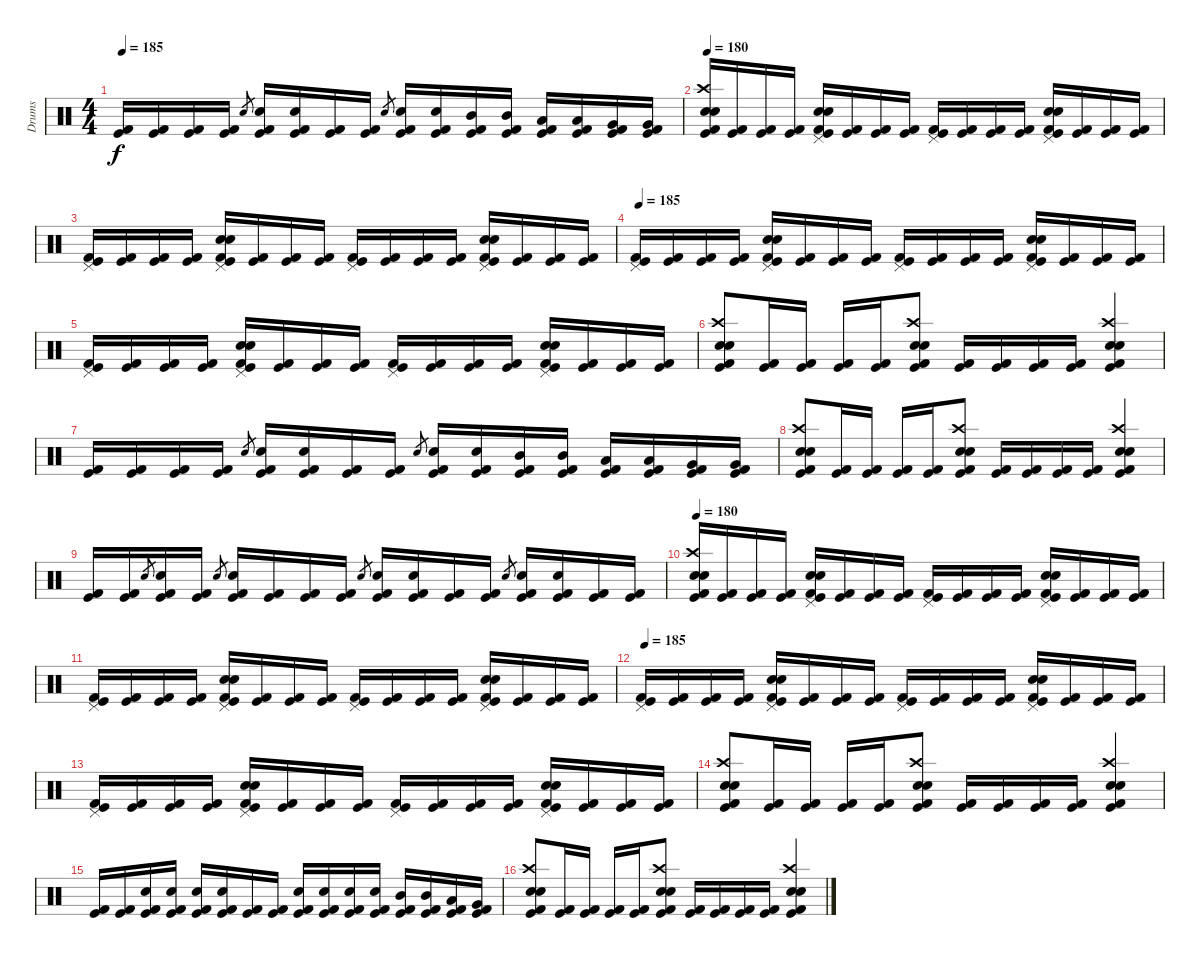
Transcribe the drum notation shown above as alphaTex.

\track ("Drums" "Drums") {instrument percussion}
\staff {score}
\articulation defaults
\ts (4 4)
\tempo 185
\clef neutral
\ks c
("Kick (hit) 2" "Kick (hit)").16{dy f} ("Kick (hit) 2" "Kick (hit)").16 ("Kick (hit) 2" "Kick (hit)").16 ("Kick (hit) 2" "Kick (hit)").16 "Electric Snare (hit)".8{gr} ("Electric Snare (hit)" "Kick (hit) 2" "Kick (hit)").16 ("Electric Snare (hit)" "Kick (hit) 2" "Kick (hit)").16 ("Kick (hit) 2" "Kick (hit)").16 ("Kick (hit) 2" "Kick (hit)").16 "Electric Snare (hit)".8{gr} ("Electric Snare (hit)" "Kick (hit) 2" "Kick (hit)").16 ("Electric Snare (hit)" "Kick (hit) 2" "Kick (hit)").16 ("Mid Tom (hit)" "Kick (hit) 2" "Kick (hit)").16 ("Mid Tom (hit)" "Kick (hit) 2" "Kick (hit)").16 ("Low Tom (hit)" "Kick (hit) 2" "Kick (hit)").16 ("Low Tom (hit)" "Kick (hit) 2" "Kick (hit)").16 ("Very Low Tom (hit)" "Kick (hit) 2" "Kick (hit)").16 ("Very Low Tom (hit)" "Kick (hit) 2" "Kick (hit)").16 |
\tempo 180
("Crash high (hit)" "Electric Snare (hit)" "Snare (hit) 2" "Kick (hit) 2" "Kick (hit)").16 ("Kick (hit) 2" "Kick (hit)").16 ("Kick (hit) 2" "Kick (hit)").16 ("Kick (hit) 2" "Kick (hit)").16 ("Pedal Hi-Hat (hit)" "Electric Snare (hit)" "Snare (hit) 2" "Kick (hit) 2" "Kick (hit)").16 ("Kick (hit) 2" "Kick (hit)").16 ("Kick (hit) 2" "Kick (hit)").16 ("Kick (hit) 2" "Kick (hit)").16 ("Pedal Hi-Hat (hit)" "Kick (hit) 2" "Kick (hit)").16 ("Kick (hit) 2" "Kick (hit)").16 ("Kick (hit) 2" "Kick (hit)").16 ("Kick (hit) 2" "Kick (hit)").16 ("Pedal Hi-Hat (hit)" "Electric Snare (hit)" "Snare (hit) 2" "Kick (hit) 2" "Kick (hit)").16 ("Kick (hit) 2" "Kick (hit)").16 ("Kick (hit) 2" "Kick (hit)").16 ("Kick (hit) 2" "Kick (hit)").16 |
("Pedal Hi-Hat (hit)" "Kick (hit) 2" "Kick (hit)").16 ("Kick (hit) 2" "Kick (hit)").16 ("Kick (hit) 2" "Kick (hit)").16 ("Kick (hit) 2" "Kick (hit)").16 ("Pedal Hi-Hat (hit)" "Electric Snare (hit)" "Snare (hit) 2" "Kick (hit) 2" "Kick (hit)").16 ("Kick (hit) 2" "Kick (hit)").16 ("Kick (hit) 2" "Kick (hit)").16 ("Kick (hit) 2" "Kick (hit)").16 ("Pedal Hi-Hat (hit)" "Kick (hit) 2" "Kick (hit)").16 ("Kick (hit) 2" "Kick (hit)").16 ("Kick (hit) 2" "Kick (hit)").16 ("Kick (hit) 2" "Kick (hit)").16 ("Pedal Hi-Hat (hit)" "Electric Snare (hit)" "Snare (hit) 2" "Kick (hit) 2" "Kick (hit)").16 ("Kick (hit) 2" "Kick (hit)").16 ("Kick (hit) 2" "Kick (hit)").16 ("Kick (hit) 2" "Kick (hit)").16 |
\tempo 185
("Pedal Hi-Hat (hit)" "Kick (hit) 2" "Kick (hit)").16 ("Kick (hit) 2" "Kick (hit)").16 ("Kick (hit) 2" "Kick (hit)").16 ("Kick (hit) 2" "Kick (hit)").16 ("Pedal Hi-Hat (hit)" "Electric Snare (hit)" "Snare (hit) 2" "Kick (hit) 2" "Kick (hit)").16 ("Kick (hit) 2" "Kick (hit)").16 ("Kick (hit) 2" "Kick (hit)").16 ("Kick (hit) 2" "Kick (hit)").16 ("Pedal Hi-Hat (hit)" "Kick (hit) 2" "Kick (hit)").16 ("Kick (hit) 2" "Kick (hit)").16 ("Kick (hit) 2" "Kick (hit)").16 ("Kick (hit) 2" "Kick (hit)").16 ("Pedal Hi-Hat (hit)" "Electric Snare (hit)" "Snare (hit) 2" "Kick (hit) 2" "Kick (hit)").16 ("Kick (hit) 2" "Kick (hit)").16 ("Kick (hit) 2" "Kick (hit)").16 ("Kick (hit) 2" "Kick (hit)").16 |
("Pedal Hi-Hat (hit)" "Kick (hit) 2" "Kick (hit)").16 ("Kick (hit) 2" "Kick (hit)").16 ("Kick (hit) 2" "Kick (hit)").16 ("Kick (hit) 2" "Kick (hit)").16 ("Pedal Hi-Hat (hit)" "Electric Snare (hit)" "Snare (hit) 2" "Kick (hit) 2" "Kick (hit)").16 ("Kick (hit) 2" "Kick (hit)").16 ("Kick (hit) 2" "Kick (hit)").16 ("Kick (hit) 2" "Kick (hit)").16 ("Pedal Hi-Hat (hit)" "Kick (hit) 2" "Kick (hit)").16 ("Kick (hit) 2" "Kick (hit)").16 ("Kick (hit) 2" "Kick (hit)").16 ("Kick (hit) 2" "Kick (hit)").16 ("Pedal Hi-Hat (hit)" "Electric Snare (hit)" "Snare (hit) 2" "Kick (hit) 2" "Kick (hit)").16 ("Kick (hit) 2" "Kick (hit)").16 ("Kick (hit) 2" "Kick (hit)").16 ("Kick (hit) 2" "Kick (hit)").16 |
("Crash high (hit)" "Electric Snare (hit)" "Snare (hit) 2" "Kick (hit) 2" "Kick (hit)").8 ("Kick (hit) 2" "Kick (hit)").16 ("Kick (hit) 2" "Kick (hit)").16 ("Kick (hit) 2" "Kick (hit)").16 ("Kick (hit) 2" "Kick (hit)").16 ("Crash high (hit)" "Electric Snare (hit)" "Snare (hit) 2" "Kick (hit) 2" "Kick (hit)").8 ("Kick (hit) 2" "Kick (hit)").16 ("Kick (hit) 2" "Kick (hit)").16 ("Kick (hit) 2" "Kick (hit)").16 ("Kick (hit) 2" "Kick (hit)").16 ("Crash high (hit)" "Electric Snare (hit)" "Snare (hit) 2" "Kick (hit) 2" "Kick (hit)").4 |
("Kick (hit) 2" "Kick (hit)").16 ("Kick (hit) 2" "Kick (hit)").16 ("Kick (hit) 2" "Kick (hit)").16 ("Kick (hit) 2" "Kick (hit)").16 "Electric Snare (hit)".8{gr} ("Electric Snare (hit)" "Kick (hit) 2" "Kick (hit)").16 ("Electric Snare (hit)" "Kick (hit) 2" "Kick (hit)").16 ("Kick (hit) 2" "Kick (hit)").16 ("Kick (hit) 2" "Kick (hit)").16 "Electric Snare (hit)".8{gr} ("Electric Snare (hit)" "Kick (hit) 2" "Kick (hit)").16 ("Electric Snare (hit)" "Kick (hit) 2" "Kick (hit)").16 ("Mid Tom (hit)" "Kick (hit) 2" "Kick (hit)").16 ("Mid Tom (hit)" "Kick (hit) 2" "Kick (hit)").16 ("Low Tom (hit)" "Kick (hit) 2" "Kick (hit)").16 ("Low Tom (hit)" "Kick (hit) 2" "Kick (hit)").16 ("Very Low Tom (hit)" "Kick (hit) 2" "Kick (hit)").16 ("Very Low Tom (hit)" "Kick (hit) 2" "Kick (hit)").16 |
("Crash high (hit)" "Electric Snare (hit)" "Snare (hit) 2" "Kick (hit) 2" "Kick (hit)").8 ("Kick (hit) 2" "Kick (hit)").16 ("Kick (hit) 2" "Kick (hit)").16 ("Kick (hit) 2" "Kick (hit)").16 ("Kick (hit) 2" "Kick (hit)").16 ("Crash high (hit)" "Electric Snare (hit)" "Snare (hit) 2" "Kick (hit) 2" "Kick (hit)").8 ("Kick (hit) 2" "Kick (hit)").16 ("Kick (hit) 2" "Kick (hit)").16 ("Kick (hit) 2" "Kick (hit)").16 ("Kick (hit) 2" "Kick (hit)").16 ("Crash high (hit)" "Electric Snare (hit)" "Snare (hit) 2" "Kick (hit) 2" "Kick (hit)").4 |
("Kick (hit) 2" "Kick (hit)").16 ("Kick (hit) 2" "Kick (hit)").16 "Electric Snare (hit)".8{gr} ("Electric Snare (hit)" "Kick (hit) 2" "Kick (hit)").16 ("Kick (hit) 2" "Kick (hit)").16 "Electric Snare (hit)".8{gr} ("Electric Snare (hit)" "Kick (hit) 2" "Kick (hit)").16 ("Kick (hit) 2" "Kick (hit)").16 ("Kick (hit) 2" "Kick (hit)").16 ("Kick (hit) 2" "Kick (hit)").16 "Electric Snare (hit)".8{gr} ("Electric Snare (hit)" "Kick (hit) 2" "Kick (hit)").16 ("Electric Snare (hit)" "Kick (hit) 2" "Kick (hit)").16 ("Kick (hit) 2" "Kick (hit)").16 ("Kick (hit) 2" "Kick (hit)").16 "Electric Snare (hit)".8{gr} ("Electric Snare (hit)" "Kick (hit) 2" "Kick (hit)").16 ("Electric Snare (hit)" "Kick (hit) 2" "Kick (hit)").16 ("Kick (hit) 2" "Kick (hit)").16 ("Kick (hit) 2" "Kick (hit)").16 |
\tempo 180
("Crash high (hit)" "Electric Snare (hit)" "Snare (hit) 2" "Kick (hit) 2" "Kick (hit)").16 ("Kick (hit) 2" "Kick (hit)").16 ("Kick (hit) 2" "Kick (hit)").16 ("Kick (hit) 2" "Kick (hit)").16 ("Pedal Hi-Hat (hit)" "Electric Snare (hit)" "Snare (hit) 2" "Kick (hit) 2" "Kick (hit)").16 ("Kick (hit) 2" "Kick (hit)").16 ("Kick (hit) 2" "Kick (hit)").16 ("Kick (hit) 2" "Kick (hit)").16 ("Pedal Hi-Hat (hit)" "Kick (hit) 2" "Kick (hit)").16 ("Kick (hit) 2" "Kick (hit)").16 ("Kick (hit) 2" "Kick (hit)").16 ("Kick (hit) 2" "Kick (hit)").16 ("Pedal Hi-Hat (hit)" "Electric Snare (hit)" "Snare (hit) 2" "Kick (hit) 2" "Kick (hit)").16 ("Kick (hit) 2" "Kick (hit)").16 ("Kick (hit) 2" "Kick (hit)").16 ("Kick (hit) 2" "Kick (hit)").16 |
("Pedal Hi-Hat (hit)" "Kick (hit) 2" "Kick (hit)").16 ("Kick (hit) 2" "Kick (hit)").16 ("Kick (hit) 2" "Kick (hit)").16 ("Kick (hit) 2" "Kick (hit)").16 ("Pedal Hi-Hat (hit)" "Electric Snare (hit)" "Snare (hit) 2" "Kick (hit) 2" "Kick (hit)").16 ("Kick (hit) 2" "Kick (hit)").16 ("Kick (hit) 2" "Kick (hit)").16 ("Kick (hit) 2" "Kick (hit)").16 ("Pedal Hi-Hat (hit)" "Kick (hit) 2" "Kick (hit)").16 ("Kick (hit) 2" "Kick (hit)").16 ("Kick (hit) 2" "Kick (hit)").16 ("Kick (hit) 2" "Kick (hit)").16 ("Pedal Hi-Hat (hit)" "Electric Snare (hit)" "Snare (hit) 2" "Kick (hit) 2" "Kick (hit)").16 ("Kick (hit) 2" "Kick (hit)").16 ("Kick (hit) 2" "Kick (hit)").16 ("Kick (hit) 2" "Kick (hit)").16 |
\tempo 185
("Pedal Hi-Hat (hit)" "Kick (hit) 2" "Kick (hit)").16 ("Kick (hit) 2" "Kick (hit)").16 ("Kick (hit) 2" "Kick (hit)").16 ("Kick (hit) 2" "Kick (hit)").16 ("Pedal Hi-Hat (hit)" "Electric Snare (hit)" "Snare (hit) 2" "Kick (hit) 2" "Kick (hit)").16 ("Kick (hit) 2" "Kick (hit)").16 ("Kick (hit) 2" "Kick (hit)").16 ("Kick (hit) 2" "Kick (hit)").16 ("Pedal Hi-Hat (hit)" "Kick (hit) 2" "Kick (hit)").16 ("Kick (hit) 2" "Kick (hit)").16 ("Kick (hit) 2" "Kick (hit)").16 ("Kick (hit) 2" "Kick (hit)").16 ("Pedal Hi-Hat (hit)" "Electric Snare (hit)" "Snare (hit) 2" "Kick (hit) 2" "Kick (hit)").16 ("Kick (hit) 2" "Kick (hit)").16 ("Kick (hit) 2" "Kick (hit)").16 ("Kick (hit) 2" "Kick (hit)").16 |
("Pedal Hi-Hat (hit)" "Kick (hit) 2" "Kick (hit)").16 ("Kick (hit) 2" "Kick (hit)").16 ("Kick (hit) 2" "Kick (hit)").16 ("Kick (hit) 2" "Kick (hit)").16 ("Pedal Hi-Hat (hit)" "Electric Snare (hit)" "Snare (hit) 2" "Kick (hit) 2" "Kick (hit)").16 ("Kick (hit) 2" "Kick (hit)").16 ("Kick (hit) 2" "Kick (hit)").16 ("Kick (hit) 2" "Kick (hit)").16 ("Pedal Hi-Hat (hit)" "Kick (hit) 2" "Kick (hit)").16 ("Kick (hit) 2" "Kick (hit)").16 ("Kick (hit) 2" "Kick (hit)").16 ("Kick (hit) 2" "Kick (hit)").16 ("Pedal Hi-Hat (hit)" "Electric Snare (hit)" "Snare (hit) 2" "Kick (hit) 2" "Kick (hit)").16 ("Kick (hit) 2" "Kick (hit)").16 ("Kick (hit) 2" "Kick (hit)").16 ("Kick (hit) 2" "Kick (hit)").16 |
("Crash high (hit)" "Electric Snare (hit)" "Snare (hit) 2" "Kick (hit) 2" "Kick (hit)").8 ("Kick (hit) 2" "Kick (hit)").16 ("Kick (hit) 2" "Kick (hit)").16 ("Kick (hit) 2" "Kick (hit)").16 ("Kick (hit) 2" "Kick (hit)").16 ("Crash high (hit)" "Electric Snare (hit)" "Snare (hit) 2" "Kick (hit) 2" "Kick (hit)").8 ("Kick (hit) 2" "Kick (hit)").16 ("Kick (hit) 2" "Kick (hit)").16 ("Kick (hit) 2" "Kick (hit)").16 ("Kick (hit) 2" "Kick (hit)").16 ("Crash high (hit)" "Electric Snare (hit)" "Snare (hit) 2" "Kick (hit) 2" "Kick (hit)").4 |
("Kick (hit) 2" "Kick (hit)").16 ("Kick (hit) 2" "Kick (hit)").16 ("Electric Snare (hit)" "Kick (hit) 2" "Kick (hit)").16 ("Electric Snare (hit)" "Kick (hit) 2" "Kick (hit)").16 ("Electric Snare (hit)" "Kick (hit) 2" "Kick (hit)").16 ("Electric Snare (hit)" "Kick (hit) 2" "Kick (hit)").16 ("Kick (hit) 2" "Kick (hit)").16 ("Kick (hit) 2" "Kick (hit)").16 ("Electric Snare (hit)" "Kick (hit) 2" "Kick (hit)").16 ("Electric Snare (hit)" "Kick (hit) 2" "Kick (hit)").16 ("Electric Snare (hit)" "Kick (hit) 2" "Kick (hit)").16 ("Electric Snare (hit)" "Kick (hit) 2" "Kick (hit)").16 ("Mid Tom (hit)" "Kick (hit) 2" "Kick (hit)").16 ("Mid Tom (hit)" "Kick (hit) 2" "Kick (hit)").16 ("Low Tom (hit)" "Kick (hit) 2" "Kick (hit)").16 ("Very Low Tom (hit)" "Kick (hit) 2" "Kick (hit)").16 |
("Crash high (hit)" "Electric Snare (hit)" "Snare (hit) 2" "Kick (hit) 2" "Kick (hit)").8 ("Kick (hit) 2" "Kick (hit)").16 ("Kick (hit) 2" "Kick (hit)").16 ("Kick (hit) 2" "Kick (hit)").16 ("Kick (hit) 2" "Kick (hit)").16 ("Crash high (hit)" "Electric Snare (hit)" "Snare (hit) 2" "Kick (hit) 2" "Kick (hit)").8 ("Kick (hit) 2" "Kick (hit)").16 ("Kick (hit) 2" "Kick (hit)").16 ("Kick (hit) 2" "Kick (hit)").16 ("Kick (hit) 2" "Kick (hit)").16 ("Crash high (hit)" "Electric Snare (hit)" "Snare (hit) 2" "Kick (hit) 2" "Kick (hit)").4
